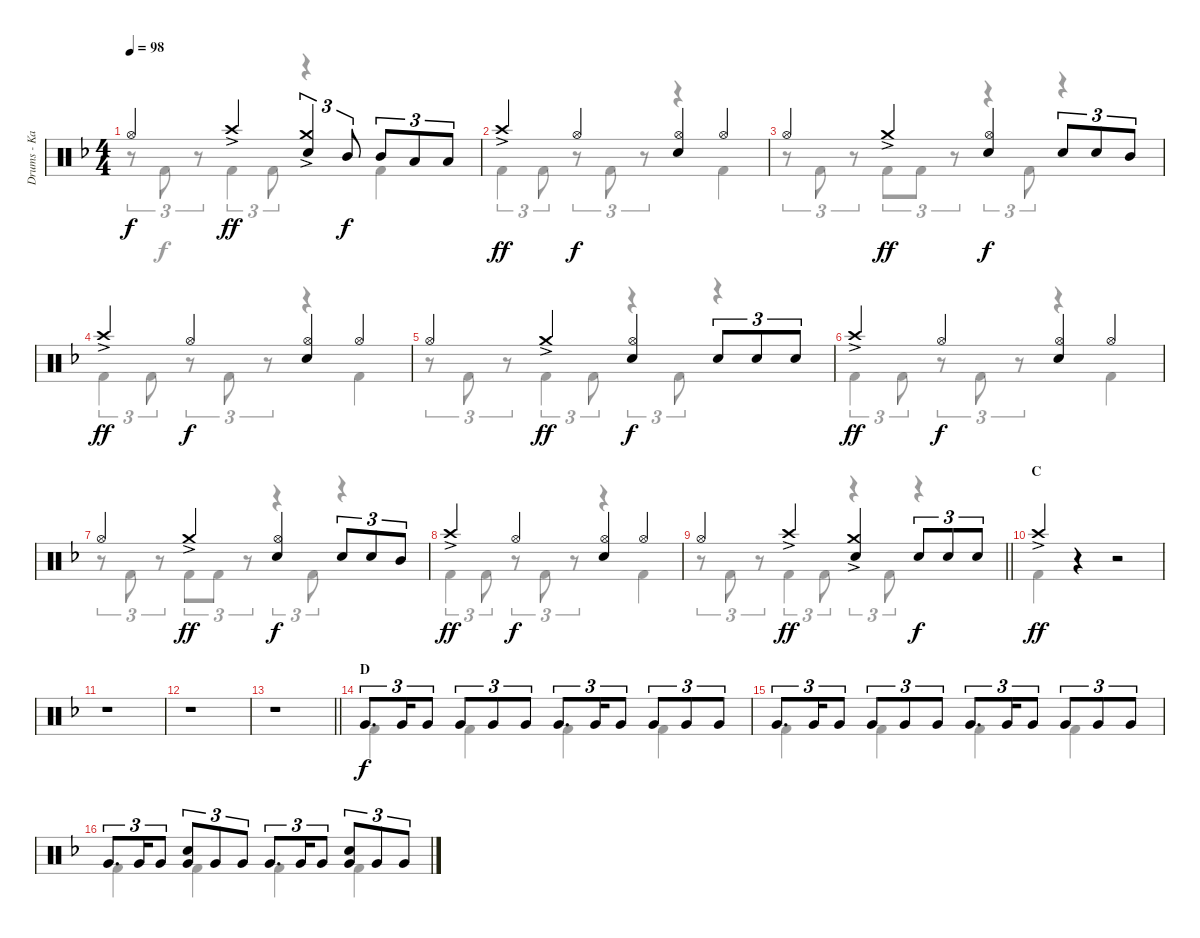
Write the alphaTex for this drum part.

\track ("Drums - Kai" "Drums - Ka") {instrument percussion}
\staff {score}
\articulation defaults
\voice
\ts (4 4)
\tempo 98
\clef neutral
\ks f "Hi-Hat (open)".4{dy f} "Crash high (hit)"{ac}.4{dy ff}
("Crash medium (hit)"{ac} "Snare (hit) 2").4{tu (3 2)} "Mid Tom (hit)".8{tu (3 2) dy f} "Mid Tom (hit)".8{tu (3 2)} "Low Tom (hit)".8{tu (3 2)} "Low Tom (hit)".8{tu (3 2)} |
"Crash high (hit)"{ac}.4{dy ff} "Hi-Hat (open)".4{dy f} ("Hi-Hat (open)" "Snare (hit) 2").4 "Hi-Hat (open)".4 |
"Hi-Hat (open)".4 "Crash medium (hit)"{ac}.4{dy ff} ("Hi-Hat (open)" "Snare (hit) 2").4{dy f} "Snare (hit) 2".8{tu (3 2)} "Snare (hit) 2".8{tu (3 2)} "Mid Tom (hit)".8{tu (3 2)} |
"Crash high (hit)"{ac}.4{dy ff} "Hi-Hat (open)".4{dy f} ("Hi-Hat (open)" "Snare (hit) 2").4 "Hi-Hat (open)".4 |
"Hi-Hat (open)".4 "Crash medium (hit)"{ac}.4{dy ff} ("Hi-Hat (open)" "Snare (hit) 2").4{dy f} "Snare (hit) 2".8{tu (3 2)} "Snare (hit) 2".8{tu (3 2)} "Snare (hit) 2".8{tu (3 2)} |
"Crash high (hit)"{ac}.4{dy ff} "Hi-Hat (open)".4{dy f} ("Hi-Hat (open)" "Snare (hit) 2").4 "Hi-Hat (open)".4 |
"Hi-Hat (open)".4 "Crash medium (hit)"{ac}.4{dy ff} ("Hi-Hat (open)" "Snare (hit) 2").4{dy f} "Snare (hit) 2".8{tu (3 2)} "Snare (hit) 2".8{tu (3 2)} "Mid Tom (hit)".8{tu (3 2)} |
"Crash high (hit)"{ac}.4{dy ff} "Hi-Hat (open)".4{dy f} ("Hi-Hat (open)" "Snare (hit) 2").4 "Hi-Hat (open)".4 |
\barLineRight lightlight "Hi-Hat (open)".4 "Crash high (hit)"{ac}.4{dy ff}
("Crash medium (hit)"{ac} "Snare (hit) 2").4 "Snare (hit) 2".8{tu (3 2) dy f} "Snare (hit) 2".8{tu (3 2)} "Snare (hit) 2".8{tu (3 2)} |
\section ("" "C")
"Crash high (hit)"{ac}.4{dy ff} r.4 r.2 |
r.1 |
r.1 |
\barLineRight lightlight
r.1 |
\section ("" "D")
"Very Low Tom (hit)".8{d tu (3 2) dy f} "Very Low Tom (hit)".16{tu (3 2)} "Very Low Tom (hit)".8{tu (3 2)} "Very Low Tom (hit)".8{tu (3 2)} "Very Low Tom (hit)".8{tu (3 2)} "Very Low Tom (hit)".8{tu (3 2)} "Very Low Tom (hit)".8{d tu (3 2)} "Very Low Tom (hit)".16{tu (3 2)} "Very Low Tom (hit)".8{tu (3 2)} "Very Low Tom (hit)".8{tu (3 2)} "Very Low Tom (hit)".8{tu (3 2)} "Very Low Tom (hit)".8{tu (3 2)} |
"Very Low Tom (hit)".8{d tu (3 2)} "Very Low Tom (hit)".16{tu (3 2)} "Very Low Tom (hit)".8{tu (3 2)} "Very Low Tom (hit)".8{tu (3 2)} "Very Low Tom (hit)".8{tu (3 2)} "Very Low Tom (hit)".8{tu (3 2)} "Very Low Tom (hit)".8{d tu (3 2)} "Very Low Tom (hit)".16{tu (3 2)} "Very Low Tom (hit)".8{tu (3 2)} "Very Low Tom (hit)".8{tu (3 2)} "Very Low Tom (hit)".8{tu (3 2)} "Very Low Tom (hit)".8{tu (3 2)} |
"Very Low Tom (hit)".8{d tu (3 2)} "Very Low Tom (hit)".16{tu (3 2)} "Very Low Tom (hit)".8{tu (3 2)} ("Very Low Tom (hit)" "Snare (hit) 2").8{tu (3 2)} "Very Low Tom (hit)".8{tu (3 2)} "Very Low Tom (hit)".8{tu (3 2)} "Very Low Tom (hit)".8{d tu (3 2)} "Very Low Tom (hit)".16{tu (3 2)} "Very Low Tom (hit)".8{tu (3 2)} ("Very Low Tom (hit)" "Snare (hit) 2").8{tu (3 2)} "Very Low Tom (hit)".8{tu (3 2)} "Very Low Tom (hit)".8{tu (3 2)}
\voice
\clef neutral
\ottava regular
\simile none
\ks f
r.8{tu (3 2) dy f} "Kick (hit) 2".8{tu (3 2)} r.8{tu (3 2)} "Kick (hit) 2".4{tu (3 2)} "Kick (hit) 2".8{tu (3 2)} r.4 "Kick (hit) 2".4 |
"Kick (hit) 2".4{tu (3 2)} "Kick (hit) 2".8{tu (3 2)} r.8{tu (3 2)} "Kick (hit) 2".8{tu (3 2)} r.8{tu (3 2)} r.4 "Kick (hit) 2".4 |
r.8{tu (3 2)} "Kick (hit) 2".8{tu (3 2)} r.8{tu (3 2)} "Kick (hit) 2".8{tu (3 2)} "Kick (hit) 2".8{tu (3 2)} r.8{tu (3 2)} r.4{tu (3 2)} "Kick (hit) 2".8{tu (3 2)} r.4 |
"Kick (hit) 2".4{tu (3 2)} "Kick (hit) 2".8{tu (3 2)} r.8{tu (3 2)} "Kick (hit) 2".8{tu (3 2)} r.8{tu (3 2)} r.4 "Kick (hit) 2".4 |
r.8{tu (3 2)} "Kick (hit) 2".8{tu (3 2)} r.8{tu (3 2)} "Kick (hit) 2".4{tu (3 2)} "Kick (hit) 2".8{tu (3 2)} r.4{tu (3 2)} "Kick (hit) 2".8{tu (3 2)} r.4 |
"Kick (hit) 2".4{tu (3 2)} "Kick (hit) 2".8{tu (3 2)} r.8{tu (3 2)} "Kick (hit) 2".8{tu (3 2)} r.8{tu (3 2)} r.4 "Kick (hit) 2".4 |
r.8{tu (3 2)} "Kick (hit) 2".8{tu (3 2)} r.8{tu (3 2)} "Kick (hit) 2".8{tu (3 2)} "Kick (hit) 2".8{tu (3 2)} r.8{tu (3 2)} r.4{tu (3 2)} "Kick (hit) 2".8{tu (3 2)} r.4 |
"Kick (hit) 2".4{tu (3 2)} "Kick (hit) 2".8{tu (3 2)} r.8{tu (3 2)} "Kick (hit) 2".8{tu (3 2)} r.8{tu (3 2)} r.4 "Kick (hit) 2".4 |
\barLineRight lightlight
r.8{tu (3 2)} "Kick (hit) 2".8{tu (3 2)} r.8{tu (3 2)} "Kick (hit) 2".4{tu (3 2)} "Kick (hit) 2".8{tu (3 2)} r.4{tu (3 2)} "Kick (hit) 2".8{tu (3 2)} r.4 |
"Kick (hit) 2".4 r.4 r.2 |
|
|
\barLineRight lightlight
|
"Kick (hit) 2".4 "Kick (hit) 2".4 "Kick (hit) 2".4 "Kick (hit) 2".4 |
"Kick (hit) 2".4 "Kick (hit) 2".4 "Kick (hit) 2".4 "Kick (hit) 2".4 |
"Kick (hit) 2".4 "Kick (hit) 2".4 "Kick (hit) 2".4 "Kick (hit) 2".4
